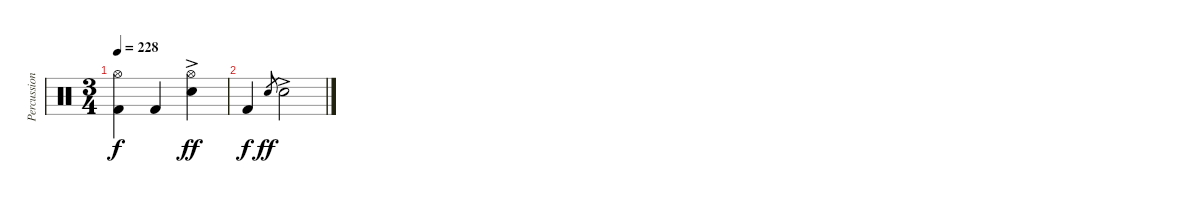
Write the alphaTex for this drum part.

\track ("Percussion" "Percussion") {instrument percussion}
\staff {score}
\articulation defaults
\ts (3 4)
\tempo 228
\clef neutral
\ks c
("Hi-Hat (open)" "Kick (hit) 2").4{dy f} "Kick (hit) 2".4 ("Hi-Hat (open)" "Electric Snare (hit)"{ac}).4{dy ff} |
"Kick (hit) 2".4{dy f} "Electric Snare (hit)".8{gr dy ff} "Electric Snare (hit)"{ac}.2
